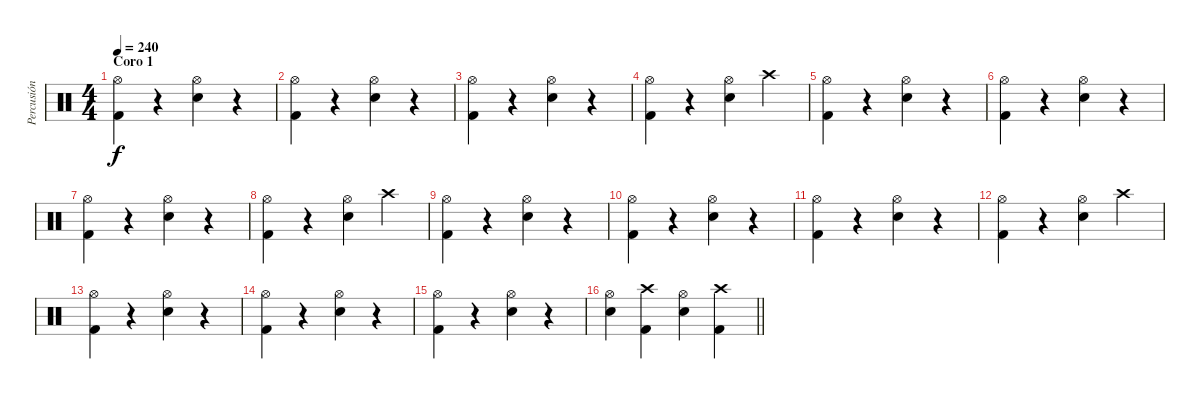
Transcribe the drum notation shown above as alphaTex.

\track ("Percusión" "Percusión") {instrument percussion}
\staff {score}
\articulation defaults
\ts (4 4)
\section ("" "Coro 1")
\tempo 240
\clef neutral
\ks c
("Hi-Hat (open)" "Kick (hit) 2").4{dy f} r.4 ("Hi-Hat (open)" "Electric Snare (hit)").4 r.4 |
("Hi-Hat (open)" "Kick (hit) 2").4 r.4 ("Hi-Hat (open)" "Electric Snare (hit)").4 r.4 |
("Hi-Hat (open)" "Kick (hit) 2").4 r.4 ("Hi-Hat (open)" "Electric Snare (hit)").4 r.4 |
("Hi-Hat (open)" "Kick (hit) 2").4 r.4 ("Hi-Hat (open)" "Electric Snare (hit)").4 "Crash high (hit)".4 |
("Hi-Hat (open)" "Kick (hit) 2").4 r.4 ("Hi-Hat (open)" "Electric Snare (hit)").4 r.4 |
("Hi-Hat (open)" "Kick (hit) 2").4 r.4 ("Hi-Hat (open)" "Electric Snare (hit)").4 r.4 |
("Hi-Hat (open)" "Kick (hit) 2").4 r.4 ("Hi-Hat (open)" "Electric Snare (hit)").4 r.4 |
("Hi-Hat (open)" "Kick (hit) 2").4 r.4 ("Hi-Hat (open)" "Electric Snare (hit)").4 "Crash high (hit)".4 |
("Hi-Hat (open)" "Kick (hit) 2").4 r.4 ("Hi-Hat (open)" "Electric Snare (hit)").4 r.4 |
("Hi-Hat (open)" "Kick (hit) 2").4 r.4 ("Hi-Hat (open)" "Electric Snare (hit)").4 r.4 |
("Hi-Hat (open)" "Kick (hit) 2").4 r.4 ("Hi-Hat (open)" "Electric Snare (hit)").4 r.4 |
("Hi-Hat (open)" "Kick (hit) 2").4 r.4 ("Hi-Hat (open)" "Electric Snare (hit)").4 "Crash high (hit)".4 |
("Hi-Hat (open)" "Kick (hit) 2").4 r.4 ("Hi-Hat (open)" "Electric Snare (hit)").4 r.4 |
("Hi-Hat (open)" "Kick (hit) 2").4 r.4 ("Hi-Hat (open)" "Electric Snare (hit)").4 r.4 |
("Hi-Hat (open)" "Kick (hit) 2").4 r.4 ("Hi-Hat (open)" "Electric Snare (hit)").4 r.4 |
\barLineRight lightlight
("Hi-Hat (open)" "Electric Snare (hit)").4 ("Crash high (hit)" "Kick (hit) 2").4 ("Hi-Hat (open)" "Electric Snare (hit)").4 ("Crash high (hit)" "Kick (hit) 2").4
